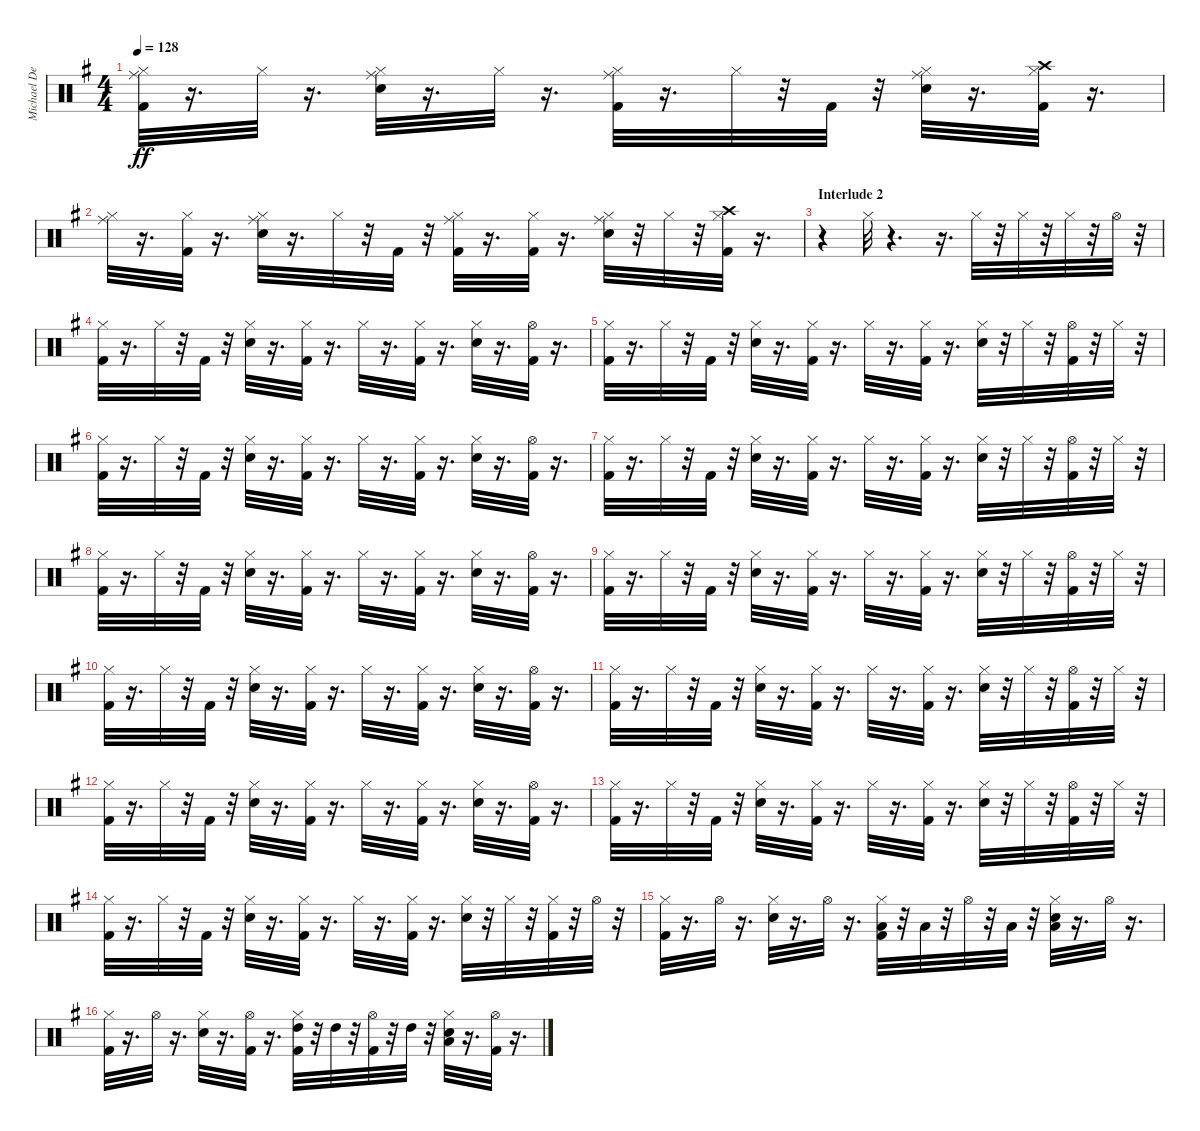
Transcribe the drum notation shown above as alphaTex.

\track ("Michael DeRosier" "Michael De") {instrument percussion}
\staff {score}
\articulation defaults
\ts (4 4)
\tempo 128
\clef neutral
\ks g
("Kick (hit) 2" "Hi-Hat (closed)" "Ride (middle)").32{dy ff} r.16{d} "Hi-Hat (closed)".32 r.16{d} ("Snare (hit) 2" "Hi-Hat (closed)" "Ride (middle)").32 r.16{d} "Hi-Hat (closed)".32 r.16{d} ("Kick (hit) 2" "Hi-Hat (closed)" "Ride (middle)").32 r.16{d} "Hi-Hat (closed)".32 r.32 "Kick (hit) 2".32 r.32 ("Snare (hit) 2" "Hi-Hat (closed)" "Ride (middle)").32 r.16{d} ("Kick (hit) 2" "Hi-Hat (closed)" "Crash high (hit)").32 r.16{d} |
("Hi-Hat (closed)" "Ride (middle)").32 r.16{d} ("Kick (hit) 2" "Hi-Hat (closed)").32 r.16{d} ("Snare (hit) 2" "Hi-Hat (closed)" "Ride (middle)").32 r.16{d} "Hi-Hat (closed)".32 r.32 "Kick (hit) 2".32 r.32 ("Kick (hit) 2" "Hi-Hat (closed)" "Ride (middle)").32 r.16{d} ("Kick (hit) 2" "Hi-Hat (closed)").32 r.16{d} ("Snare (hit) 2" "Hi-Hat (closed)" "Ride (middle)").32 r.32 "Hi-Hat (closed)".32 r.32 ("Kick (hit) 2" "Hi-Hat (closed)" "Crash high (hit)").32 r.16{d} |
\section ("" "Interlude 2")
r.4 "Hi-Hat (closed)".32 r.4{d} r.16{d} "Hi-Hat (closed)".32 r.32 "Hi-Hat (closed)".32 r.32 "Hi-Hat (closed)".32 r.32 "Hi-Hat (open)".32 r.32 |
("Kick (hit) 2" "Hi-Hat (closed)").32 r.16{d} "Hi-Hat (closed)".32 r.32 "Kick (hit) 2".32 r.32 ("Snare (hit) 2" "Hi-Hat (closed)").32 r.16{d} ("Kick (hit) 2" "Hi-Hat (closed)").32 r.16{d} "Hi-Hat (closed)".32 r.16{d} ("Kick (hit) 2" "Hi-Hat (closed)").32 r.16{d} ("Snare (hit) 2" "Hi-Hat (closed)").32 r.16{d} ("Kick (hit) 2" "Hi-Hat (open)").32 r.16{d} |
("Kick (hit) 2" "Hi-Hat (closed)").32 r.16{d} "Hi-Hat (closed)".32 r.32 "Kick (hit) 2".32 r.32 ("Snare (hit) 2" "Hi-Hat (closed)").32 r.16{d} ("Kick (hit) 2" "Hi-Hat (closed)").32 r.16{d} "Hi-Hat (closed)".32 r.16{d} ("Kick (hit) 2" "Hi-Hat (closed)").32 r.16{d} ("Snare (hit) 2" "Hi-Hat (closed)").32 r.32 "Hi-Hat (closed)".32 r.32 ("Kick (hit) 2" "Hi-Hat (open)").32 r.32 "Hi-Hat (closed)".32 r.32 |
("Kick (hit) 2" "Hi-Hat (closed)").32 r.16{d} "Hi-Hat (closed)".32 r.32 "Kick (hit) 2".32 r.32 ("Snare (hit) 2" "Hi-Hat (closed)").32 r.16{d} ("Kick (hit) 2" "Hi-Hat (closed)").32 r.16{d} "Hi-Hat (closed)".32 r.16{d} ("Kick (hit) 2" "Hi-Hat (closed)").32 r.16{d} ("Snare (hit) 2" "Hi-Hat (closed)").32 r.16{d} ("Kick (hit) 2" "Hi-Hat (open)").32 r.16{d} |
("Kick (hit) 2" "Hi-Hat (closed)").32 r.16{d} "Hi-Hat (closed)".32 r.32 "Kick (hit) 2".32 r.32 ("Snare (hit) 2" "Hi-Hat (closed)").32 r.16{d} ("Kick (hit) 2" "Hi-Hat (closed)").32 r.16{d} "Hi-Hat (closed)".32 r.16{d} ("Kick (hit) 2" "Hi-Hat (closed)").32 r.16{d} ("Snare (hit) 2" "Hi-Hat (closed)").32 r.32 "Hi-Hat (closed)".32 r.32 ("Kick (hit) 2" "Hi-Hat (open)").32 r.32 "Hi-Hat (closed)".32 r.32 |
("Kick (hit) 2" "Hi-Hat (closed)").32 r.16{d} "Hi-Hat (closed)".32 r.32 "Kick (hit) 2".32 r.32 ("Snare (hit) 2" "Hi-Hat (closed)").32 r.16{d} ("Kick (hit) 2" "Hi-Hat (closed)").32 r.16{d} "Hi-Hat (closed)".32 r.16{d} ("Kick (hit) 2" "Hi-Hat (closed)").32 r.16{d} ("Snare (hit) 2" "Hi-Hat (closed)").32 r.16{d} ("Kick (hit) 2" "Hi-Hat (open)").32 r.16{d} |
("Kick (hit) 2" "Hi-Hat (closed)").32 r.16{d} "Hi-Hat (closed)".32 r.32 "Kick (hit) 2".32 r.32 ("Snare (hit) 2" "Hi-Hat (closed)").32 r.16{d} ("Kick (hit) 2" "Hi-Hat (closed)").32 r.16{d} "Hi-Hat (closed)".32 r.16{d} ("Kick (hit) 2" "Hi-Hat (closed)").32 r.16{d} ("Snare (hit) 2" "Hi-Hat (closed)").32 r.32 "Hi-Hat (closed)".32 r.32 ("Kick (hit) 2" "Hi-Hat (open)").32 r.32 "Hi-Hat (closed)".32 r.32 |
("Kick (hit) 2" "Hi-Hat (closed)").32 r.16{d} "Hi-Hat (closed)".32 r.32 "Kick (hit) 2".32 r.32 ("Snare (hit) 2" "Hi-Hat (closed)").32 r.16{d} ("Kick (hit) 2" "Hi-Hat (closed)").32 r.16{d} "Hi-Hat (closed)".32 r.16{d} ("Kick (hit) 2" "Hi-Hat (closed)").32 r.16{d} ("Snare (hit) 2" "Hi-Hat (closed)").32 r.16{d} ("Kick (hit) 2" "Hi-Hat (open)").32 r.16{d} |
("Kick (hit) 2" "Hi-Hat (closed)").32 r.16{d} "Hi-Hat (closed)".32 r.32 "Kick (hit) 2".32 r.32 ("Snare (hit) 2" "Hi-Hat (closed)").32 r.16{d} ("Kick (hit) 2" "Hi-Hat (closed)").32 r.16{d} "Hi-Hat (closed)".32 r.16{d} ("Kick (hit) 2" "Hi-Hat (closed)").32 r.16{d} ("Snare (hit) 2" "Hi-Hat (closed)").32 r.32 "Hi-Hat (closed)".32 r.32 ("Kick (hit) 2" "Hi-Hat (open)").32 r.32 "Hi-Hat (closed)".32 r.32 |
("Kick (hit) 2" "Hi-Hat (closed)").32 r.16{d} "Hi-Hat (closed)".32 r.32 "Kick (hit) 2".32 r.32 ("Snare (hit) 2" "Hi-Hat (closed)").32 r.16{d} ("Kick (hit) 2" "Hi-Hat (closed)").32 r.16{d} "Hi-Hat (closed)".32 r.16{d} ("Kick (hit) 2" "Hi-Hat (closed)").32 r.16{d} ("Snare (hit) 2" "Hi-Hat (closed)").32 r.16{d} ("Kick (hit) 2" "Hi-Hat (open)").32 r.16{d} |
("Kick (hit) 2" "Hi-Hat (closed)").32 r.16{d} "Hi-Hat (closed)".32 r.32 "Kick (hit) 2".32 r.32 ("Snare (hit) 2" "Hi-Hat (closed)").32 r.16{d} ("Kick (hit) 2" "Hi-Hat (closed)").32 r.16{d} "Hi-Hat (closed)".32 r.16{d} ("Kick (hit) 2" "Hi-Hat (closed)").32 r.16{d} ("Snare (hit) 2" "Hi-Hat (closed)").32 r.32 "Hi-Hat (closed)".32 r.32 ("Kick (hit) 2" "Hi-Hat (open)").32 r.32 "Hi-Hat (closed)".32 r.32 |
("Kick (hit) 2" "Hi-Hat (closed)").32 r.16{d} "Hi-Hat (closed)".32 r.32 "Kick (hit) 2".32 r.32 ("Snare (hit) 2" "Hi-Hat (closed)").32 r.16{d} ("Kick (hit) 2" "Hi-Hat (closed)").32 r.16{d} "Hi-Hat (closed)".32 r.16{d} ("Kick (hit) 2" "Hi-Hat (closed)").32 r.16{d} ("Snare (hit) 2" "Hi-Hat (closed)").32 r.32 "Hi-Hat (closed)".32 r.32 ("Kick (hit) 2" "Hi-Hat (closed)").32 r.32 "Hi-Hat (open)".32 r.32 |
("Kick (hit) 2" "Hi-Hat (closed)").32 r.16{d} "Hi-Hat (open)".32 r.16{d} ("Snare (hit) 2" "Hi-Hat (closed)").32 r.16{d} "Hi-Hat (open)".32 r.16{d} ("Kick (hit) 2" "Hi-Hat (closed)" "Low Tom (hit)").32 r.32 "Low Tom (hit)".32 r.32 "Hi-Hat (open)".32 r.32 "Low Tom (hit)".32 r.32 ("Snare (hit) 2" "Hi-Hat (closed)" "Low Floor Tom (hit)").32 r.16{d} "Hi-Hat (open)".32 r.16{d} |
("Kick (hit) 2" "Hi-Hat (closed)").32 r.16{d} "Hi-Hat (open)".32 r.16{d} ("Snare (hit) 2" "Hi-Hat (closed)").32 r.16{d} ("Kick (hit) 2" "Hi-Hat (open)").32 r.16{d} ("Kick (hit) 2" "Hi-Hat (closed)" "High Tom (hit)").32 r.32 "High Tom (hit)".32 r.32 ("Kick (hit) 2" "Hi-Hat (open)").32 r.32 "High Tom (hit)".32 r.32 ("Snare (hit) 2" "Hi-Hat (closed)" "Low Tom (hit)").32 r.16{d} ("Kick (hit) 2" "Hi-Hat (open)").32 r.16{d}
